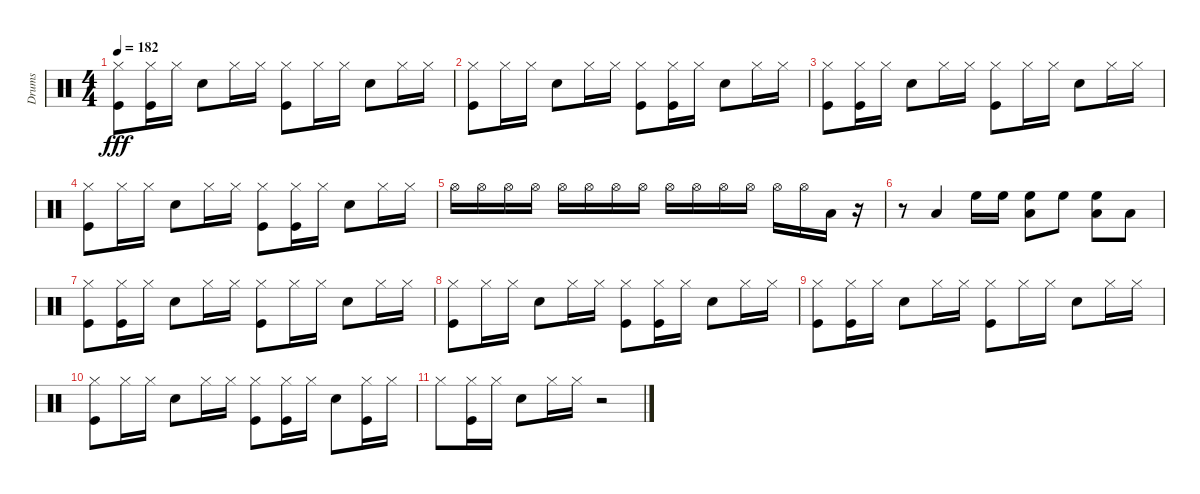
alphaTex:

\track ("Drums" "Drums") {instrument percussion}
\staff {score}
\articulation defaults
\ts (4 4)
\tempo 182
\clef neutral
\ks c
("Hi-Hat (closed)" "Kick (hit)").8{dy fff} ("Hi-Hat (closed)" "Kick (hit)").16 "Hi-Hat (closed)".16 "Snare (hit) 2".8 "Hi-Hat (closed)".16 "Hi-Hat (closed)".16 ("Hi-Hat (closed)" "Kick (hit)").8 "Hi-Hat (closed)".16 "Hi-Hat (closed)".16 "Snare (hit) 2".8 "Hi-Hat (closed)".16 "Hi-Hat (closed)".16 |
("Hi-Hat (closed)" "Kick (hit)").8 "Hi-Hat (closed)".16 "Hi-Hat (closed)".16 "Snare (hit) 2".8 "Hi-Hat (closed)".16 "Hi-Hat (closed)".16 ("Hi-Hat (closed)" "Kick (hit)").8 ("Hi-Hat (closed)" "Kick (hit)").16 "Hi-Hat (closed)".16 "Snare (hit) 2".8 "Hi-Hat (closed)".16 "Hi-Hat (closed)".16 |
("Hi-Hat (closed)" "Kick (hit)").8 ("Hi-Hat (closed)" "Kick (hit)").16 "Hi-Hat (closed)".16 "Snare (hit) 2".8 "Hi-Hat (closed)".16 "Hi-Hat (closed)".16 ("Hi-Hat (closed)" "Kick (hit)").8 "Hi-Hat (closed)".16 "Hi-Hat (closed)".16 "Snare (hit) 2".8 "Hi-Hat (closed)".16 "Hi-Hat (closed)".16 |
("Hi-Hat (closed)" "Kick (hit)").8 "Hi-Hat (closed)".16 "Hi-Hat (closed)".16 "Snare (hit) 2".8 "Hi-Hat (closed)".16 "Hi-Hat (closed)".16 ("Hi-Hat (closed)" "Kick (hit)").8 ("Hi-Hat (closed)" "Kick (hit)").16 "Hi-Hat (closed)".16 "Snare (hit) 2".8 "Hi-Hat (closed)".16 "Hi-Hat (closed)".16 |
"Hi-Hat (open)".16 "Hi-Hat (open)".16 "Hi-Hat (open)".16 "Hi-Hat (open)".16 "Hi-Hat (open)".16 "Hi-Hat (open)".16 "Hi-Hat (open)".16 "Hi-Hat (open)".16 "Hi-Hat (open)".16 "Hi-Hat (open)".16 "Hi-Hat (open)".16 "Hi-Hat (open)".16 "Hi-Hat (open)".16 "Hi-Hat (open)".16 "Low Floor Tom (hit)".16 r.16 |
r.8 "Low Floor Tom (hit)".4 "High Floor Tom (hit)".16 "High Floor Tom (hit)".16 ("High Floor Tom (hit)" "Low Floor Tom (hit)").8 "High Floor Tom (hit)".8 ("High Floor Tom (hit)" "Low Floor Tom (hit)").8 "Low Floor Tom (hit)".8 |
("Hi-Hat (closed)" "Kick (hit)").8 ("Hi-Hat (closed)" "Kick (hit)").16 "Hi-Hat (closed)".16 "Snare (hit) 2".8 "Hi-Hat (closed)".16 "Hi-Hat (closed)".16 ("Hi-Hat (closed)" "Kick (hit)").8 "Hi-Hat (closed)".16 "Hi-Hat (closed)".16 "Snare (hit) 2".8 "Hi-Hat (closed)".16 "Hi-Hat (closed)".16 |
("Hi-Hat (closed)" "Kick (hit)").8 "Hi-Hat (closed)".16 "Hi-Hat (closed)".16 "Snare (hit) 2".8 "Hi-Hat (closed)".16 "Hi-Hat (closed)".16 ("Hi-Hat (closed)" "Kick (hit)").8 ("Hi-Hat (closed)" "Kick (hit)").16 "Hi-Hat (closed)".16 "Snare (hit) 2".8 "Hi-Hat (closed)".16 "Hi-Hat (closed)".16 |
("Hi-Hat (closed)" "Kick (hit)").8 ("Hi-Hat (closed)" "Kick (hit)").16 "Hi-Hat (closed)".16 "Snare (hit) 2".8 "Hi-Hat (closed)".16 "Hi-Hat (closed)".16 ("Hi-Hat (closed)" "Kick (hit)").8 "Hi-Hat (closed)".16 "Hi-Hat (closed)".16 "Snare (hit) 2".8 "Hi-Hat (closed)".16 "Hi-Hat (closed)".16 |
("Hi-Hat (closed)" "Kick (hit)").8 "Hi-Hat (closed)".16 "Hi-Hat (closed)".16 "Snare (hit) 2".8 "Hi-Hat (closed)".16 "Hi-Hat (closed)".16 ("Hi-Hat (closed)" "Kick (hit)").8 ("Hi-Hat (closed)" "Kick (hit)").16 "Hi-Hat (closed)".16 "Snare (hit) 2".8 ("Hi-Hat (closed)" "Kick (hit)").16 "Hi-Hat (closed)".16 |
"Hi-Hat (closed)".8 ("Hi-Hat (closed)" "Kick (hit)").16 "Hi-Hat (closed)".16 "Snare (hit) 2".8 "Hi-Hat (closed)".16 "Hi-Hat (closed)".16 r.2
